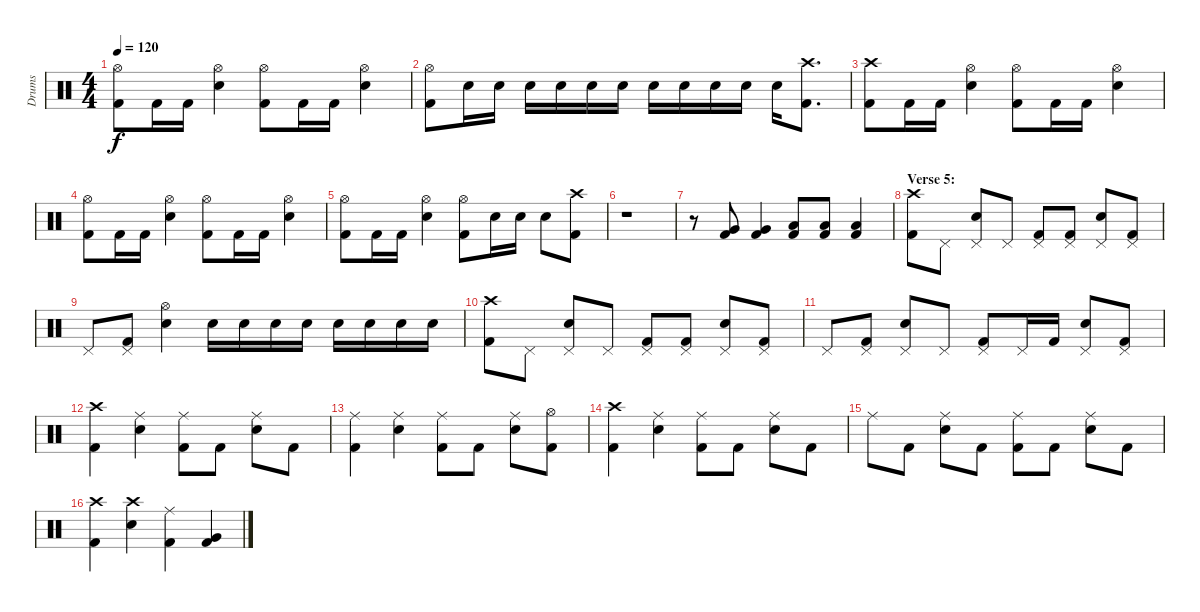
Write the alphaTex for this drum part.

\track ("Drums" "Drums") {instrument percussion}
\staff {score}
\articulation defaults
\ts (4 4)
\tempo 120
\clef neutral
\ks c
("Hi-Hat (open)" "Kick (hit) 2").8{dy f} "Kick (hit) 2".16 "Kick (hit) 2".16 ("Hi-Hat (open)" "Electric Snare (hit)").4 ("Hi-Hat (open)" "Kick (hit) 2").8 "Kick (hit) 2".16 "Kick (hit) 2".16 ("Hi-Hat (open)" "Electric Snare (hit)").4 |
("Hi-Hat (open)" "Kick (hit) 2").8 "Electric Snare (hit)".16 "Electric Snare (hit)".16 "Electric Snare (hit)".16 "Electric Snare (hit)".16 "Electric Snare (hit)".16 "Electric Snare (hit)".16 "Electric Snare (hit)".16 "Electric Snare (hit)".16 "Electric Snare (hit)".16 "Electric Snare (hit)".16 "Electric Snare (hit)".16 ("Crash high (hit)" "Kick (hit) 2").8{d} |
("Crash high (hit)" "Kick (hit) 2").8 "Kick (hit) 2".16 "Kick (hit) 2".16 ("Hi-Hat (open)" "Electric Snare (hit)").4 ("Hi-Hat (open)" "Kick (hit) 2").8 "Kick (hit) 2".16 "Kick (hit) 2".16 ("Hi-Hat (open)" "Electric Snare (hit)").4 |
("Hi-Hat (open)" "Kick (hit) 2").8 "Kick (hit) 2".16 "Kick (hit) 2".16 ("Hi-Hat (open)" "Electric Snare (hit)").4 ("Hi-Hat (open)" "Kick (hit) 2").8 "Kick (hit) 2".16 "Kick (hit) 2".16 ("Hi-Hat (open)" "Electric Snare (hit)").4 |
("Hi-Hat (open)" "Kick (hit) 2").8 "Kick (hit) 2".16 "Kick (hit) 2".16 ("Hi-Hat (open)" "Electric Snare (hit)").4 ("Hi-Hat (open)" "Kick (hit) 2").8 "Electric Snare (hit)".16 "Electric Snare (hit)".16 "Electric Snare (hit)".8 ("Crash high (hit)" "Kick (hit) 2").8 |
r.1 |
r.8 ("Very Low Tom (hit)" "Kick (hit) 2").8 ("Very Low Tom (hit)" "Kick (hit) 2").4 ("Low Floor Tom (hit)" "Kick (hit) 2").8 ("Low Floor Tom (hit)" "Kick (hit) 2").8 ("Low Floor Tom (hit)" "Kick (hit) 2").4 |
\section ("" "Verse 5:")
("Crash high (hit)" "Kick (hit) 2").8 "Pedal Hi-Hat (hit)".8 ("Pedal Hi-Hat (hit)" "Electric Snare (hit)").8 "Pedal Hi-Hat (hit)".8 ("Pedal Hi-Hat (hit)" "Kick (hit) 2").8 ("Pedal Hi-Hat (hit)" "Kick (hit) 2").8 ("Pedal Hi-Hat (hit)" "Electric Snare (hit)").8 ("Pedal Hi-Hat (hit)" "Kick (hit) 2").8 |
"Pedal Hi-Hat (hit)".8 ("Pedal Hi-Hat (hit)" "Kick (hit) 2").8 ("Hi-Hat (open)" "Electric Snare (hit)").4 "Electric Snare (hit)".16 "Electric Snare (hit)".16 "Electric Snare (hit)".16 "Electric Snare (hit)".16 "Electric Snare (hit)".16 "Electric Snare (hit)".16 "Electric Snare (hit)".16 "Electric Snare (hit)".16 |
("Crash high (hit)" "Kick (hit) 2").8 "Pedal Hi-Hat (hit)".8 ("Pedal Hi-Hat (hit)" "Electric Snare (hit)").8 "Pedal Hi-Hat (hit)".8 ("Pedal Hi-Hat (hit)" "Kick (hit) 2").8 ("Pedal Hi-Hat (hit)" "Kick (hit) 2").8 ("Pedal Hi-Hat (hit)" "Electric Snare (hit)").8 ("Pedal Hi-Hat (hit)" "Kick (hit) 2").8 |
"Pedal Hi-Hat (hit)".8 ("Pedal Hi-Hat (hit)" "Kick (hit) 2").8 ("Pedal Hi-Hat (hit)" "Electric Snare (hit)").8 "Pedal Hi-Hat (hit)".8 ("Pedal Hi-Hat (hit)" "Kick (hit) 2").8 "Pedal Hi-Hat (hit)".16 "Kick (hit) 2".16 ("Pedal Hi-Hat (hit)" "Electric Snare (hit)").8 ("Pedal Hi-Hat (hit)" "Kick (hit) 2").8 |
("Crash high (hit)" "Kick (hit) 2").4 ("Ride (middle)" "Electric Snare (hit)").4 ("Ride (middle)" "Kick (hit) 2").8 "Kick (hit) 2".8 ("Ride (middle)" "Electric Snare (hit)").8 "Kick (hit) 2".8 |
("Ride (middle)" "Kick (hit) 2").4 ("Ride (middle)" "Electric Snare (hit)").4 ("Ride (middle)" "Kick (hit) 2").8 "Kick (hit) 2".8 ("Ride (middle)" "Electric Snare (hit)").8 ("Hi-Hat (open)" "Kick (hit) 2").8 |
("Crash high (hit)" "Kick (hit) 2").4 ("Ride (middle)" "Electric Snare (hit)").4 ("Ride (middle)" "Kick (hit) 2").8 "Kick (hit) 2".8 ("Ride (middle)" "Electric Snare (hit)").8 "Kick (hit) 2".8 |
"Ride (middle)".8 "Kick (hit) 2".8 ("Ride (middle)" "Electric Snare (hit)").8 "Kick (hit) 2".8 ("Ride (middle)" "Kick (hit) 2").8 "Kick (hit) 2".8 ("Ride (middle)" "Electric Snare (hit)").8 "Kick (hit) 2".8 |
("Crash high (hit)" "Kick (hit) 2").4 ("Crash high (hit)" "Electric Snare (hit)").4 ("Ride (middle)" "Kick (hit) 2").4 ("Very Low Tom (hit)" "Kick (hit) 2").4
